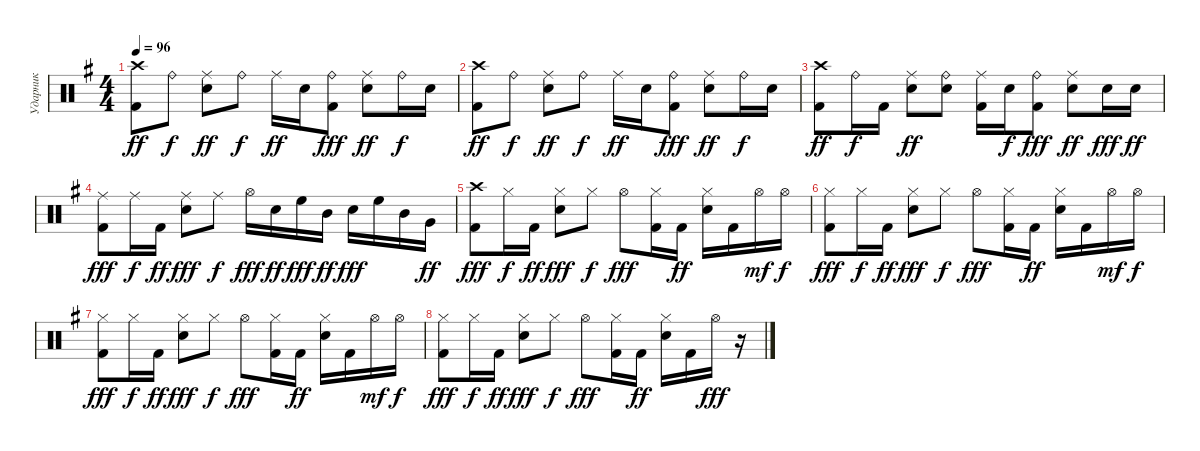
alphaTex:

\track ("Ударник" "Ударник") {instrument percussion}
\staff {score}
\articulation defaults
\ts (4 4)
\tempo 96
\clef neutral
\ks eminor
("Kick (hit) 2" "Crash high (hit)").8{dy ff} "Ride (bell)".8{dy f} ("Snare (hit) 2" "Ride (middle)").8{dy ff} "Ride (bell)".8{dy f} "Ride (middle)".16{dy ff} "Snare (hit) 2".16 ("Kick (hit) 2" "Ride (bell)").8{dy fff} ("Snare (hit) 2" "Ride (middle)").8{dy ff} "Ride (bell)".16{dy f} "Snare (hit) 2".16 |
("Kick (hit) 2" "Crash high (hit)").8{dy ff} "Ride (bell)".8{dy f} ("Snare (hit) 2" "Ride (middle)").8{dy ff} "Ride (bell)".8{dy f} "Ride (middle)".16{dy ff} "Snare (hit) 2".16 ("Kick (hit) 2" "Ride (bell)").8{dy fff} ("Snare (hit) 2" "Ride (middle)").8{dy ff} "Ride (bell)".16{dy f} "Snare (hit) 2".16 |
("Kick (hit) 2" "Crash high (hit)").8{dy ff} "Ride (bell)".16{dy f} "Kick (hit) 2".16 ("Snare (hit) 2" "Ride (middle)").8{dy ff} ("Snare (hit) 2" "Ride (bell)").8 ("Kick (hit) 2" "Ride (middle)").16 "Snare (hit) 2".16{dy f} ("Kick (hit) 2" "Ride (bell)").8{dy fff} ("Snare (hit) 2" "Ride (middle)").8{dy ff} "Snare (hit) 2".16{dy fff} "Snare (hit) 2".16{dy ff} |
("Kick (hit) 2" "Ride (middle)").8{dy fff} "Ride (middle)".16{dy f} "Kick (hit) 2".16{dy ff} ("Snare (hit) 2" "Ride (middle)").8{dy fff} "Ride (middle)".8{dy f} "Hi-Hat (open)".16{dy fff} "Snare (hit) 2".16{dy ff} "High Floor Tom (hit)".16{dy fff} "Mid Tom (hit)".16{dy ff} "Snare (hit) 2".16{dy fff} "High Floor Tom (hit)".16 "Mid Tom (hit)".16 "Very Low Tom (hit)".16{dy ff} |
("Kick (hit) 2" "Crash high (hit)").8{dy fff} "Hi-Hat (closed)".16{dy f} "Kick (hit) 2".16{dy ff} ("Snare (hit) 2" "Hi-Hat (closed)").8{dy fff} "Hi-Hat (closed)".8{dy f} "Hi-Hat (open)".8{dy fff} ("Kick (hit) 2" "Hi-Hat (closed)").16 "Kick (hit) 2".16{dy ff} ("Snare (hit) 2" "Hi-Hat (closed)").16 "Kick (hit) 2".16 "Hi-Hat (open)".16{dy mf} "Hi-Hat (open)".16{dy f} |
("Kick (hit) 2" "Hi-Hat (closed)").8{dy fff} "Hi-Hat (closed)".16{dy f} "Kick (hit) 2".16{dy ff} ("Snare (hit) 2" "Hi-Hat (closed)").8{dy fff} "Hi-Hat (closed)".8{dy f} "Hi-Hat (open)".8{dy fff} ("Kick (hit) 2" "Hi-Hat (closed)").16 "Kick (hit) 2".16{dy ff} ("Snare (hit) 2" "Hi-Hat (closed)").16 "Kick (hit) 2".16 "Hi-Hat (open)".16{dy mf} "Hi-Hat (open)".16{dy f} |
("Kick (hit) 2" "Hi-Hat (closed)").8{dy fff} "Hi-Hat (closed)".16{dy f} "Kick (hit) 2".16{dy ff} ("Snare (hit) 2" "Hi-Hat (closed)").8{dy fff} "Hi-Hat (closed)".8{dy f} "Hi-Hat (open)".8{dy fff} ("Kick (hit) 2" "Hi-Hat (closed)").16 "Kick (hit) 2".16{dy ff} ("Snare (hit) 2" "Hi-Hat (closed)").16 "Kick (hit) 2".16 "Hi-Hat (open)".16{dy mf} "Hi-Hat (open)".16{dy f} |
("Kick (hit) 2" "Hi-Hat (closed)").8{dy fff} "Hi-Hat (closed)".16{dy f} "Kick (hit) 2".16{dy ff} ("Snare (hit) 2" "Hi-Hat (closed)").8{dy fff} "Hi-Hat (closed)".8{dy f} "Hi-Hat (open)".8{dy fff} ("Kick (hit) 2" "Hi-Hat (closed)").16 "Kick (hit) 2".16{dy ff} ("Snare (hit) 2" "Hi-Hat (closed)").16 "Kick (hit) 2".16 "Hi-Hat (open)".16{dy fff} r.16
